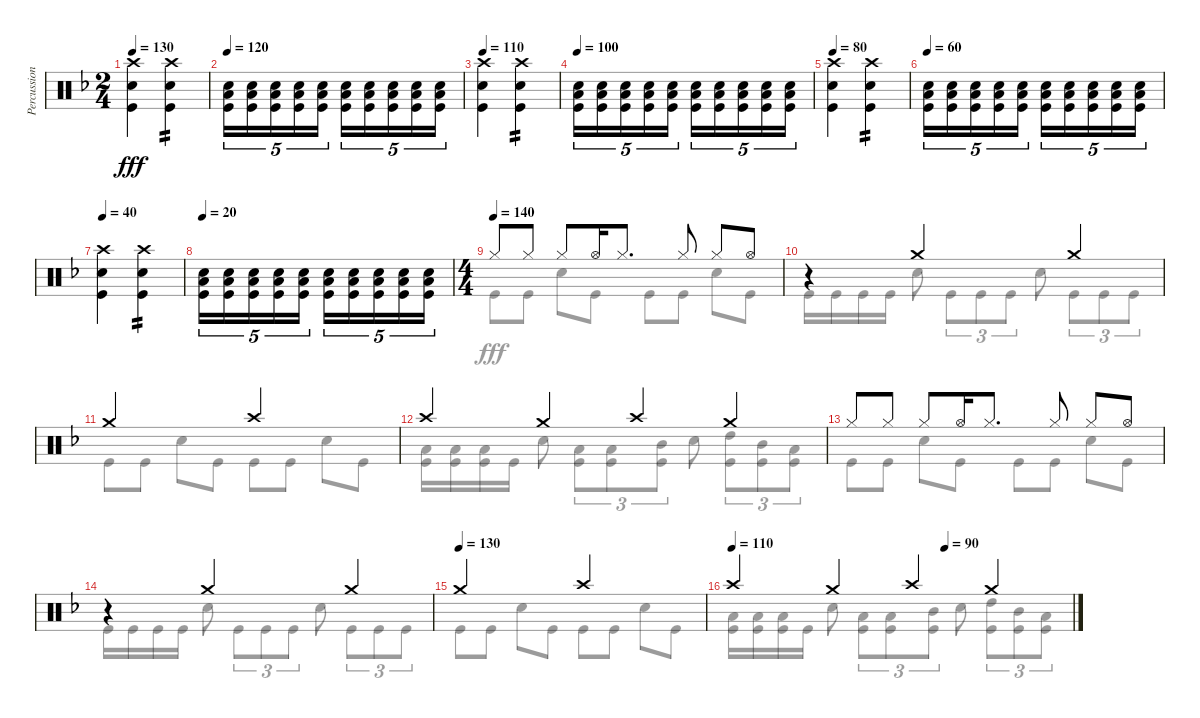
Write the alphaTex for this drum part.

\track ("Percussion" "Percussion") {instrument percussion}
\staff {score}
\articulation defaults
\voice
\ts (2 4)
\tempo 130
\clef neutral
\ks dminor
("Crash high (hit)" "Electric Snare (hit)" "Kick (hit)").4{dy fff} ("Crash high (hit)" "Electric Snare (hit)" "Kick (hit)").4{tp 2} |
\tempo 120
("Electric Snare (hit)" "Low Floor Tom (hit)" "Kick (hit)").16{tu (5 4)} ("Electric Snare (hit)" "Low Floor Tom (hit)" "Kick (hit)").16{tu (5 4)} ("Electric Snare (hit)" "Low Floor Tom (hit)" "Kick (hit)").16{tu (5 4)} ("Electric Snare (hit)" "Low Floor Tom (hit)" "Kick (hit)").16{tu (5 4)} ("Electric Snare (hit)" "Low Floor Tom (hit)" "Kick (hit)").16{tu (5 4)} ("Electric Snare (hit)" "Low Tom (hit)" "Kick (hit)").16{tu (5 4)} ("Electric Snare (hit)" "Low Tom (hit)" "Kick (hit)").16{tu (5 4)} ("Electric Snare (hit)" "Low Tom (hit)" "Kick (hit)").16{tu (5 4)} ("Electric Snare (hit)" "Low Tom (hit)" "Kick (hit)").16{tu (5 4)} ("Electric Snare (hit)" "Low Tom (hit)" "Kick (hit)").16{tu (5 4)} |
\tempo 110
("Crash high (hit)" "Electric Snare (hit)" "Kick (hit)").4 ("Crash high (hit)" "Electric Snare (hit)" "Kick (hit)").4{tp 2} |
\tempo 100
("Electric Snare (hit)" "Low Floor Tom (hit)" "Kick (hit)").16{tu (5 4)} ("Electric Snare (hit)" "Low Floor Tom (hit)" "Kick (hit)").16{tu (5 4)} ("Electric Snare (hit)" "Low Floor Tom (hit)" "Kick (hit)").16{tu (5 4)} ("Electric Snare (hit)" "Low Floor Tom (hit)" "Kick (hit)").16{tu (5 4)} ("Electric Snare (hit)" "Low Floor Tom (hit)" "Kick (hit)").16{tu (5 4)} ("Electric Snare (hit)" "Low Tom (hit)" "Kick (hit)").16{tu (5 4)} ("Electric Snare (hit)" "Low Tom (hit)" "Kick (hit)").16{tu (5 4)} ("Electric Snare (hit)" "Low Tom (hit)" "Kick (hit)").16{tu (5 4)} ("Electric Snare (hit)" "Low Tom (hit)" "Kick (hit)").16{tu (5 4)} ("Electric Snare (hit)" "Low Tom (hit)" "Kick (hit)").16{tu (5 4)} |
\tempo 80
("Crash high (hit)" "Electric Snare (hit)" "Kick (hit)").4 ("Crash high (hit)" "Electric Snare (hit)" "Kick (hit)").4{tp 2} |
\tempo 60
("Electric Snare (hit)" "Low Floor Tom (hit)" "Kick (hit)").16{tu (5 4)} ("Electric Snare (hit)" "Low Floor Tom (hit)" "Kick (hit)").16{tu (5 4)} ("Electric Snare (hit)" "Low Floor Tom (hit)" "Kick (hit)").16{tu (5 4)} ("Electric Snare (hit)" "Low Floor Tom (hit)" "Kick (hit)").16{tu (5 4)} ("Electric Snare (hit)" "Low Floor Tom (hit)" "Kick (hit)").16{tu (5 4)} ("Electric Snare (hit)" "Low Tom (hit)" "Kick (hit)").16{tu (5 4)} ("Electric Snare (hit)" "Low Tom (hit)" "Kick (hit)").16{tu (5 4)} ("Electric Snare (hit)" "Low Tom (hit)" "Kick (hit)").16{tu (5 4)} ("Electric Snare (hit)" "Low Tom (hit)" "Kick (hit)").16{tu (5 4)} ("Electric Snare (hit)" "Low Tom (hit)" "Kick (hit)").16{tu (5 4)} |
\tempo 40
("Crash high (hit)" "Electric Snare (hit)" "Kick (hit)").4 ("Crash high (hit)" "Electric Snare (hit)" "Kick (hit)").4{tp 2} |
\tempo 20
("Electric Snare (hit)" "Low Floor Tom (hit)" "Kick (hit)").16{tu (5 4)} ("Electric Snare (hit)" "Low Floor Tom (hit)" "Kick (hit)").16{tu (5 4)} ("Electric Snare (hit)" "Low Floor Tom (hit)" "Kick (hit)").16{tu (5 4)} ("Electric Snare (hit)" "Low Floor Tom (hit)" "Kick (hit)").16{tu (5 4)} ("Electric Snare (hit)" "Low Floor Tom (hit)" "Kick (hit)").16{tu (5 4)} ("Electric Snare (hit)" "Low Tom (hit)" "Kick (hit)").16{tu (5 4)} ("Electric Snare (hit)" "Low Tom (hit)" "Kick (hit)").16{tu (5 4)} ("Electric Snare (hit)" "Low Tom (hit)" "Kick (hit)").16{tu (5 4)} ("Electric Snare (hit)" "Low Tom (hit)" "Kick (hit)").16{tu (5 4)} ("Electric Snare (hit)" "Low Tom (hit)" "Kick (hit)").16{tu (5 4)} |
\ts (4 4)
\tempo (140)
"Hi-Hat (closed)".8 "Hi-Hat (closed)".8 "Hi-Hat (closed)".8 "Hi-Hat (open)".16 "Hi-Hat (closed)".8{d} "Hi-Hat (closed)".8 "Hi-Hat (closed)".8 "Hi-Hat (open)".8 |
r.4 "Crash medium (hit)".2 "Crash medium (hit)".2 |
"Crash medium (hit)".2 "Crash high (hit)".2 |
"Crash high (hit)".4 "Crash medium (hit)".4 "Crash high (hit)".4 "Crash medium (hit)".4 |
"Hi-Hat (closed)".8 "Hi-Hat (closed)".8 "Hi-Hat (closed)".8 "Hi-Hat (open)".16 "Hi-Hat (closed)".8{d} "Hi-Hat (closed)".8 "Hi-Hat (closed)".8 "Hi-Hat (open)".8 |
r.4 "Crash medium (hit)".2 "Crash medium (hit)".2 |
\tempo (130)
"Crash medium (hit)".2 "Crash high (hit)".2 |
\tempo 110
\tempo (90 0.625)
"Crash high (hit)".4 "Crash medium (hit)".4 "Crash high (hit)".4 "Crash medium (hit)".4
\voice
\clef neutral
\ottava regular
\simile none
\ks dminor
|
|
|
|
|
|
|
|
"Kick (hit)".8 "Kick (hit)".8 "Electric Snare (hit)".8 "Kick (hit)".8 "Kick (hit)".8 "Kick (hit)".8 "Electric Snare (hit)".8 "Kick (hit)".8 |
"Kick (hit)".16 "Kick (hit)".16 "Kick (hit)".16 "Kick (hit)".16 "Electric Snare (hit)".8 "Kick (hit)".8{tu (3 2)} "Kick (hit)".8{tu (3 2)} "Kick (hit)".8{tu (3 2)} "Electric Snare (hit)".8 "Kick (hit)".8{tu (3 2)} "Kick (hit)".8{tu (3 2)} "Kick (hit)".8{tu (3 2)} |
"Kick (hit)".8 "Kick (hit)".8 "Electric Snare (hit)".8 "Kick (hit)".8 "Kick (hit)".8 "Kick (hit)".8 "Electric Snare (hit)".8 "Kick (hit)".8 |
("Low Floor Tom (hit)" "Kick (hit)").16 ("Low Floor Tom (hit)" "Kick (hit)").16 ("Low Floor Tom (hit)" "Kick (hit)").16 "Kick (hit)".16 "Electric Snare (hit)".8 ("Low Tom (hit)" "Kick (hit)").8{tu (3 2)} ("Low Tom (hit)" "Kick (hit)").8{tu (3 2)} ("Mid Tom (hit)" "Kick (hit)").8{tu (3 2)} "Electric Snare (hit)".8 ("High Tom (hit)" "Kick (hit)").8{tu (3 2)} ("Mid Tom (hit)" "Kick (hit)").8{tu (3 2)} ("Low Tom (hit)" "Kick (hit)").8{tu (3 2)} |
"Kick (hit)".8 "Kick (hit)".8 "Electric Snare (hit)".8 "Kick (hit)".8 "Kick (hit)".8 "Kick (hit)".8 "Electric Snare (hit)".8 "Kick (hit)".8 |
"Kick (hit)".16 "Kick (hit)".16 "Kick (hit)".16 "Kick (hit)".16 "Electric Snare (hit)".8 "Kick (hit)".8{tu (3 2)} "Kick (hit)".8{tu (3 2)} "Kick (hit)".8{tu (3 2)} "Electric Snare (hit)".8 "Kick (hit)".8{tu (3 2)} "Kick (hit)".8{tu (3 2)} "Kick (hit)".8{tu (3 2)} |
"Kick (hit)".8 "Kick (hit)".8 "Electric Snare (hit)".8 "Kick (hit)".8 "Kick (hit)".8 "Kick (hit)".8 "Electric Snare (hit)".8 "Kick (hit)".8 |
("Low Floor Tom (hit)" "Kick (hit)").16 ("Low Floor Tom (hit)" "Kick (hit)").16 ("Low Floor Tom (hit)" "Kick (hit)").16 "Kick (hit)".16 "Electric Snare (hit)".8 ("Low Tom (hit)" "Kick (hit)").8{tu (3 2)} ("Low Tom (hit)" "Kick (hit)").8{tu (3 2)} ("Mid Tom (hit)" "Kick (hit)").8{tu (3 2)} "Electric Snare (hit)".8 ("High Tom (hit)" "Kick (hit)").8{tu (3 2)} ("Mid Tom (hit)" "Kick (hit)").8{tu (3 2)} ("Low Tom (hit)" "Kick (hit)").8{tu (3 2)}
